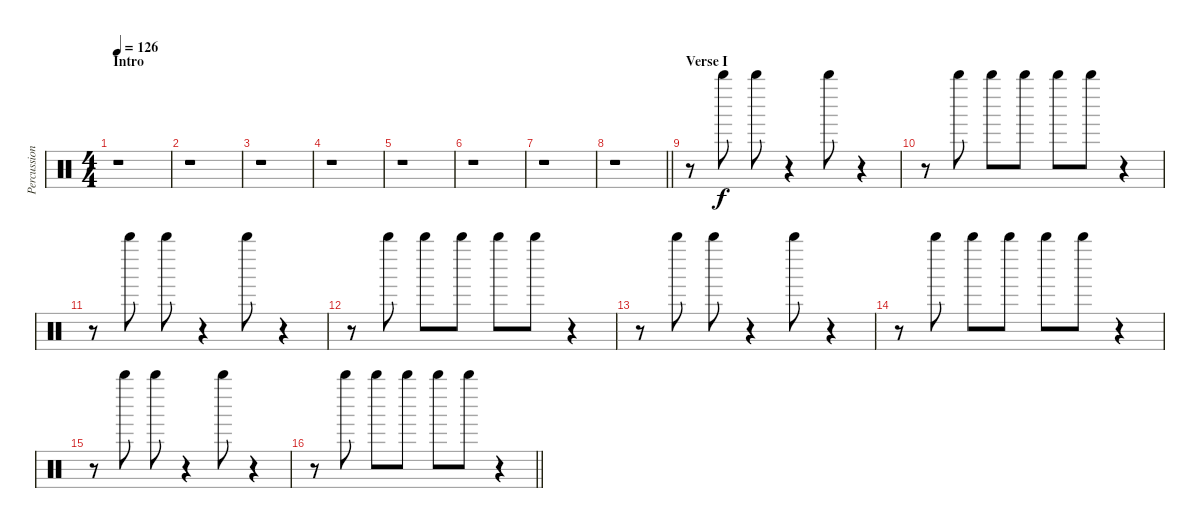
\track ("Percussion" "Percussion") {instrument percussion}
\staff {score}
\articulation defaults
\ts (4 4)
\section ("" "Intro")
\tempo 126
\clef neutral
\ks c
r.1{dy f} |
r.1 |
r.1 |
r.1 |
r.1 |
r.1 |
r.1 |
\barLineRight lightlight
r.1 |
\section ("" "Verse I")
r.8 "Whistle high (hit)".8 "Whistle high (hit)".8 r.4 "Whistle high (hit)".8 r.4 |
r.8 "Whistle high (hit)".8 "Whistle high (hit)".8 "Whistle high (hit)".8 "Whistle high (hit)".8 "Whistle high (hit)".8 r.4 |
r.8 "Whistle high (hit)".8 "Whistle high (hit)".8 r.4 "Whistle high (hit)".8 r.4 |
r.8 "Whistle high (hit)".8 "Whistle high (hit)".8 "Whistle high (hit)".8 "Whistle high (hit)".8 "Whistle high (hit)".8 r.4 |
r.8 "Whistle high (hit)".8 "Whistle high (hit)".8 r.4 "Whistle high (hit)".8 r.4 |
r.8 "Whistle high (hit)".8 "Whistle high (hit)".8 "Whistle high (hit)".8 "Whistle high (hit)".8 "Whistle high (hit)".8 r.4 |
r.8 "Whistle high (hit)".8 "Whistle high (hit)".8 r.4 "Whistle high (hit)".8 r.4 |
\barLineRight lightlight
r.8 "Whistle high (hit)".8 "Whistle high (hit)".8 "Whistle high (hit)".8 "Whistle high (hit)".8 "Whistle high (hit)".8 r.4
